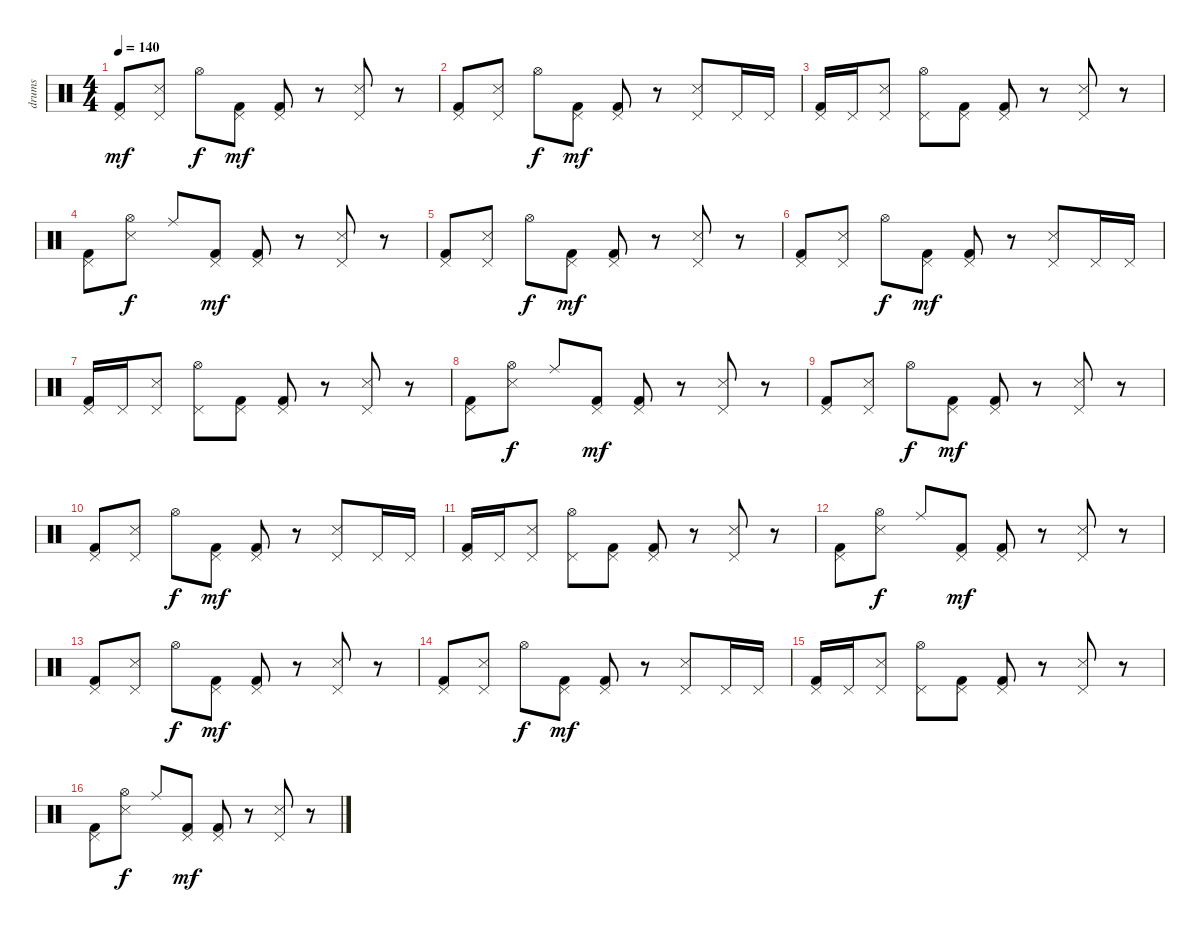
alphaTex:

\track ("drums" "drums") {instrument percussion}
\staff {score}
\articulation defaults
\ts (4 4)
\tempo 140
\clef neutral
\ks c
("Pedal Hi-Hat (hit)" "Kick (hit) 2").8{dy mf} ("Pedal Hi-Hat (hit)" "Snare (side stick) 3").8 "Hi-Hat (open)".8{dy f} ("Pedal Hi-Hat (hit)" "Kick (hit) 2").8{dy mf} ("Pedal Hi-Hat (hit)" "Kick (hit) 2").8 r.8 ("Pedal Hi-Hat (hit)" "Snare (side stick) 3").8 r.8 |
("Pedal Hi-Hat (hit)" "Kick (hit) 2").8 ("Pedal Hi-Hat (hit)" "Snare (side stick) 3").8 "Hi-Hat (open)".8{dy f} ("Pedal Hi-Hat (hit)" "Kick (hit) 2").8{dy mf} ("Pedal Hi-Hat (hit)" "Kick (hit) 2").8 r.8 ("Pedal Hi-Hat (hit)" "Snare (side stick) 3").8 "Pedal Hi-Hat (hit)".16 "Pedal Hi-Hat (hit)".16 |
("Pedal Hi-Hat (hit)" "Kick (hit) 2").16 "Pedal Hi-Hat (hit)".16 ("Pedal Hi-Hat (hit)" "Snare (side stick) 3").8 ("Pedal Hi-Hat (hit)" "Hi-Hat (open)").8 ("Pedal Hi-Hat (hit)" "Kick (hit) 2").8 ("Pedal Hi-Hat (hit)" "Kick (hit) 2").8 r.8 ("Pedal Hi-Hat (hit)" "Snare (side stick) 3").8 r.8 |
("Pedal Hi-Hat (hit)" "Kick (hit) 2").8 ("Hi-Hat (open)" "Snare (side stick) 3").8{dy f} "Ride (middle)".8 ("Pedal Hi-Hat (hit)" "Kick (hit) 2").8{dy mf} ("Pedal Hi-Hat (hit)" "Kick (hit) 2").8 r.8 ("Pedal Hi-Hat (hit)" "Snare (side stick) 3").8 r.8 |
("Pedal Hi-Hat (hit)" "Kick (hit) 2").8 ("Pedal Hi-Hat (hit)" "Snare (side stick) 3").8 "Hi-Hat (open)".8{dy f} ("Pedal Hi-Hat (hit)" "Kick (hit) 2").8{dy mf} ("Pedal Hi-Hat (hit)" "Kick (hit) 2").8 r.8 ("Pedal Hi-Hat (hit)" "Snare (side stick) 3").8 r.8 |
("Pedal Hi-Hat (hit)" "Kick (hit) 2").8 ("Pedal Hi-Hat (hit)" "Snare (side stick) 3").8 "Hi-Hat (open)".8{dy f} ("Pedal Hi-Hat (hit)" "Kick (hit) 2").8{dy mf} ("Pedal Hi-Hat (hit)" "Kick (hit) 2").8 r.8 ("Pedal Hi-Hat (hit)" "Snare (side stick) 3").8 "Pedal Hi-Hat (hit)".16 "Pedal Hi-Hat (hit)".16 |
("Pedal Hi-Hat (hit)" "Kick (hit) 2").16 "Pedal Hi-Hat (hit)".16 ("Pedal Hi-Hat (hit)" "Snare (side stick) 3").8 ("Pedal Hi-Hat (hit)" "Hi-Hat (open)").8 ("Pedal Hi-Hat (hit)" "Kick (hit) 2").8 ("Pedal Hi-Hat (hit)" "Kick (hit) 2").8 r.8 ("Pedal Hi-Hat (hit)" "Snare (side stick) 3").8 r.8 |
("Pedal Hi-Hat (hit)" "Kick (hit) 2").8 ("Hi-Hat (open)" "Snare (side stick) 3").8{dy f} "Ride (middle)".8 ("Pedal Hi-Hat (hit)" "Kick (hit) 2").8{dy mf} ("Pedal Hi-Hat (hit)" "Kick (hit) 2").8 r.8 ("Pedal Hi-Hat (hit)" "Snare (side stick) 3").8 r.8 |
("Pedal Hi-Hat (hit)" "Kick (hit) 2").8 ("Pedal Hi-Hat (hit)" "Snare (side stick) 3").8 "Hi-Hat (open)".8{dy f} ("Pedal Hi-Hat (hit)" "Kick (hit) 2").8{dy mf} ("Pedal Hi-Hat (hit)" "Kick (hit) 2").8 r.8 ("Pedal Hi-Hat (hit)" "Snare (side stick) 3").8 r.8 |
("Pedal Hi-Hat (hit)" "Kick (hit) 2").8 ("Pedal Hi-Hat (hit)" "Snare (side stick) 3").8 "Hi-Hat (open)".8{dy f} ("Pedal Hi-Hat (hit)" "Kick (hit) 2").8{dy mf} ("Pedal Hi-Hat (hit)" "Kick (hit) 2").8 r.8 ("Pedal Hi-Hat (hit)" "Snare (side stick) 3").8 "Pedal Hi-Hat (hit)".16 "Pedal Hi-Hat (hit)".16 |
("Pedal Hi-Hat (hit)" "Kick (hit) 2").16 "Pedal Hi-Hat (hit)".16 ("Pedal Hi-Hat (hit)" "Snare (side stick) 3").8 ("Pedal Hi-Hat (hit)" "Hi-Hat (open)").8 ("Pedal Hi-Hat (hit)" "Kick (hit) 2").8 ("Pedal Hi-Hat (hit)" "Kick (hit) 2").8 r.8 ("Pedal Hi-Hat (hit)" "Snare (side stick) 3").8 r.8 |
("Pedal Hi-Hat (hit)" "Kick (hit) 2").8 ("Hi-Hat (open)" "Snare (side stick) 3").8{dy f} "Ride (middle)".8 ("Pedal Hi-Hat (hit)" "Kick (hit) 2").8{dy mf} ("Pedal Hi-Hat (hit)" "Kick (hit) 2").8 r.8 ("Pedal Hi-Hat (hit)" "Snare (side stick) 3").8 r.8 |
("Pedal Hi-Hat (hit)" "Kick (hit) 2").8 ("Pedal Hi-Hat (hit)" "Snare (side stick) 3").8 "Hi-Hat (open)".8{dy f} ("Pedal Hi-Hat (hit)" "Kick (hit) 2").8{dy mf} ("Pedal Hi-Hat (hit)" "Kick (hit) 2").8 r.8 ("Pedal Hi-Hat (hit)" "Snare (side stick) 3").8 r.8 |
("Pedal Hi-Hat (hit)" "Kick (hit) 2").8 ("Pedal Hi-Hat (hit)" "Snare (side stick) 3").8 "Hi-Hat (open)".8{dy f} ("Pedal Hi-Hat (hit)" "Kick (hit) 2").8{dy mf} ("Pedal Hi-Hat (hit)" "Kick (hit) 2").8 r.8 ("Pedal Hi-Hat (hit)" "Snare (side stick) 3").8 "Pedal Hi-Hat (hit)".16 "Pedal Hi-Hat (hit)".16 |
("Pedal Hi-Hat (hit)" "Kick (hit) 2").16 "Pedal Hi-Hat (hit)".16 ("Pedal Hi-Hat (hit)" "Snare (side stick) 3").8 ("Pedal Hi-Hat (hit)" "Hi-Hat (open)").8 ("Pedal Hi-Hat (hit)" "Kick (hit) 2").8 ("Pedal Hi-Hat (hit)" "Kick (hit) 2").8 r.8 ("Pedal Hi-Hat (hit)" "Snare (side stick) 3").8 r.8 |
("Pedal Hi-Hat (hit)" "Kick (hit) 2").8 ("Hi-Hat (open)" "Snare (side stick) 3").8{dy f} "Ride (middle)".8 ("Pedal Hi-Hat (hit)" "Kick (hit) 2").8{dy mf} ("Pedal Hi-Hat (hit)" "Kick (hit) 2").8 r.8 ("Pedal Hi-Hat (hit)" "Snare (side stick) 3").8 r.8
